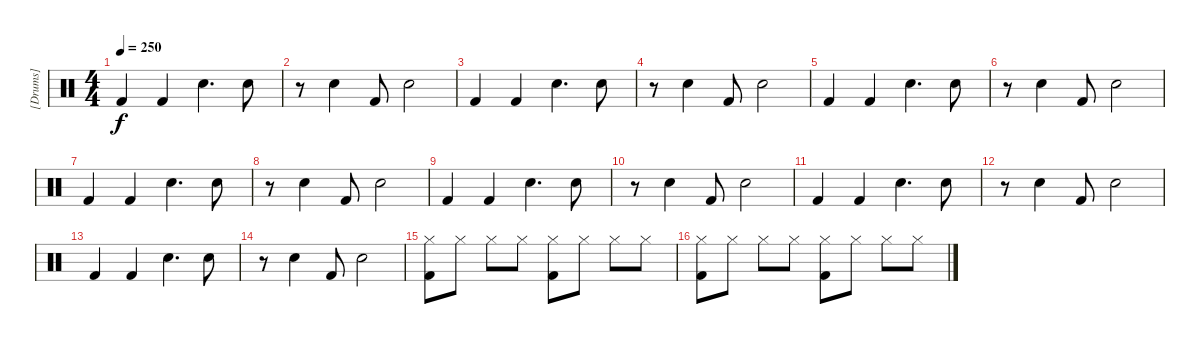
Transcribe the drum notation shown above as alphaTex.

\track ("[Drums]" "[Drums]") {instrument percussion}
\staff {score}
\articulation defaults
\ts (4 4)
\tempo 250
\clef neutral
\ks c "Kick (hit) 2".4{dy f} "Kick (hit) 2".4 "Electric Snare (hit)".4{d} "Electric Snare (hit)".8
|
r.8 "Electric Snare (hit)".4 "Kick (hit) 2".8 "Electric Snare (hit)".2 |
"Kick (hit) 2".4 "Kick (hit) 2".4 "Electric Snare (hit)".4{d} "Electric Snare (hit)".8 |
r.8 "Electric Snare (hit)".4 "Kick (hit) 2".8 "Electric Snare (hit)".2 |
"Kick (hit) 2".4 "Kick (hit) 2".4 "Electric Snare (hit)".4{d} "Electric Snare (hit)".8 |
r.8 "Electric Snare (hit)".4 "Kick (hit) 2".8 "Electric Snare (hit)".2 |
"Kick (hit) 2".4 "Kick (hit) 2".4 "Electric Snare (hit)".4{d} "Electric Snare (hit)".8 |
r.8 "Electric Snare (hit)".4 "Kick (hit) 2".8 "Electric Snare (hit)".2 |
"Kick (hit) 2".4 "Kick (hit) 2".4 "Electric Snare (hit)".4{d} "Electric Snare (hit)".8 |
r.8 "Electric Snare (hit)".4 "Kick (hit) 2".8 "Electric Snare (hit)".2 |
"Kick (hit) 2".4 "Kick (hit) 2".4 "Electric Snare (hit)".4{d} "Electric Snare (hit)".8 |
r.8 "Electric Snare (hit)".4 "Kick (hit) 2".8 "Electric Snare (hit)".2 |
"Kick (hit) 2".4 "Kick (hit) 2".4 "Electric Snare (hit)".4{d} "Electric Snare (hit)".8 |
r.8 "Electric Snare (hit)".4 "Kick (hit) 2".8 "Electric Snare (hit)".2 |
("Hi-Hat (closed)" "Kick (hit) 2").8 "Hi-Hat (closed)".8 "Hi-Hat (closed)".8 "Hi-Hat (closed)".8 ("Hi-Hat (closed)" "Kick (hit) 2").8 "Hi-Hat (closed)".8 "Hi-Hat (closed)".8 "Hi-Hat (closed)".8 |
("Hi-Hat (closed)" "Kick (hit) 2").8 "Hi-Hat (closed)".8 "Hi-Hat (closed)".8 "Hi-Hat (closed)".8 ("Hi-Hat (closed)" "Kick (hit) 2").8 "Hi-Hat (closed)".8 "Hi-Hat (closed)".8 "Hi-Hat (closed)".8
